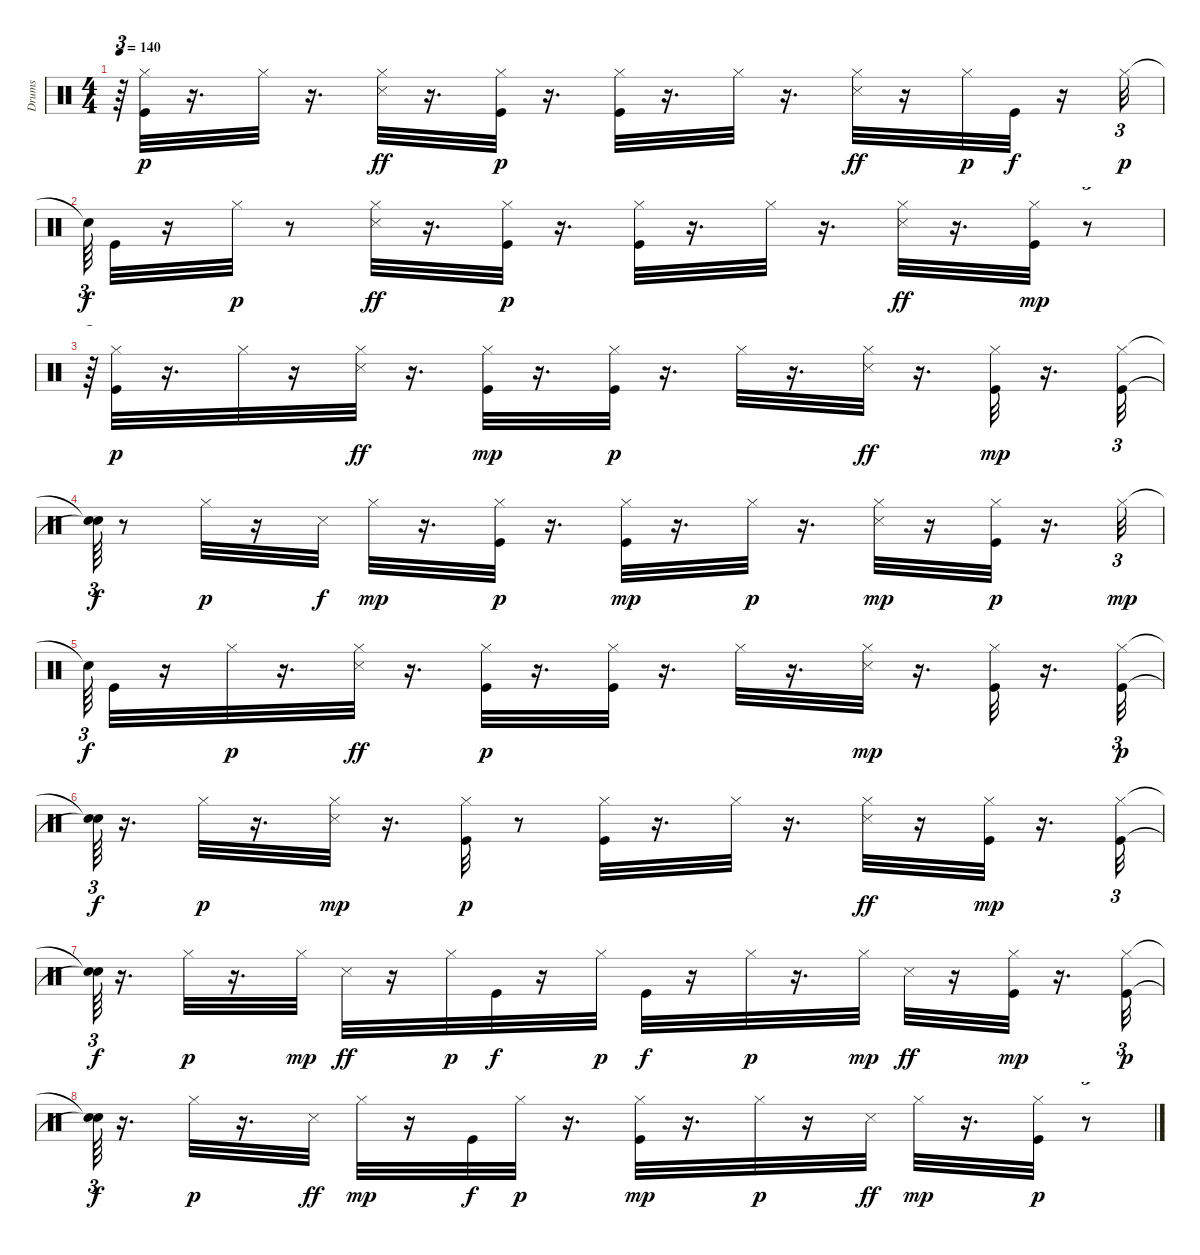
\track ("Drums" "Drums") {instrument percussion}
\staff {score}
\articulation defaults
\ts (4 4)
\tempo 140
\clef neutral
\ks c
r.64{tu (3 2) dy p} ("Hi-Hat (closed)" "Kick (hit)").32 r.16{d} "Hi-Hat (closed)".32 r.16{d} ("Hi-Hat (closed)" "Snare (side stick) 3").32{dy ff} r.16{d} ("Kick (hit)" "Hi-Hat (closed)").32{dy p} r.16{d} ("Kick (hit)" "Hi-Hat (closed)").32 r.16{d} "Hi-Hat (closed)".32 r.16{d} ("Hi-Hat (closed)" "Snare (side stick) 3").32{dy ff} r.16 "Hi-Hat (closed)".32{dy p} "Kick (hit)".32{dy f} r.16 "Hi-Hat (closed)".32{tu (3 2) dy p} |
"Snare (hit)"{t}.64{tu (3 2) dy f} "Kick (hit)".32 r.16 "Hi-Hat (closed)".32{dy p} r.8 ("Hi-Hat (closed)" "Snare (side stick) 3").32{dy ff} r.16{d} ("Hi-Hat (closed)" "Kick (hit)").32{dy p} r.16{d} ("Kick (hit)" "Hi-Hat (closed)").32 r.16{d} "Hi-Hat (closed)".32 r.16{d} ("Hi-Hat (closed)" "Snare (side stick) 3").32{dy ff} r.16{d} ("Kick (hit)" "Hi-Hat (closed)").32{dy mp} r.8{tu (3 2)} |
r.64{tu (3 2)} ("Kick (hit)" "Hi-Hat (closed)").32{dy p} r.16{d} "Hi-Hat (closed)".32 r.16 ("Hi-Hat (closed)" "Snare (side stick) 3").32{dy ff} r.16{d} ("Kick (hit)" "Hi-Hat (closed)").32{dy mp} r.16{d} ("Kick (hit)" "Hi-Hat (closed)").32{dy p} r.16{d} "Hi-Hat (closed)".32 r.16{d} ("Hi-Hat (closed)" "Snare (side stick) 3").32{dy ff} r.16{d} ("Hi-Hat (closed)" "Kick (hit)").32{dy mp} r.16{d} ("Kick (hit)" "Hi-Hat (closed)").32{tu (3 2)} |
("Snare (hit)"{t} "Snare (hit)"{t}).64{tu (3 2) dy f} r.8 "Hi-Hat (closed)".32{dy p} r.16 "Snare (side stick) 3".32{dy f} "Hi-Hat (closed)".32{dy mp} r.16{d} ("Kick (hit)" "Hi-Hat (closed)").32{dy p} r.16{d} ("Hi-Hat (closed)" "Kick (hit)").32{dy mp} r.16{d} "Hi-Hat (closed)".32{dy p} r.16{d} ("Snare (side stick) 3" "Hi-Hat (closed)").32{dy mp} r.16 ("Kick (hit)" "Hi-Hat (closed)").32{dy p} r.16{d} "Hi-Hat (closed)".32{tu (3 2) dy mp} |
"Snare (hit)"{t}.64{tu (3 2) dy f} "Kick (hit)".32 r.16 "Hi-Hat (closed)".32{dy p} r.16{d} ("Hi-Hat (closed)" "Snare (side stick) 3").32{dy ff} r.16{d} ("Kick (hit)" "Hi-Hat (closed)").32{dy p} r.16{d} ("Kick (hit)" "Hi-Hat (closed)").32 r.16{d} "Hi-Hat (closed)".32 r.16{d} ("Hi-Hat (closed)" "Snare (side stick) 3").32{dy mp} r.16{d} ("Kick (hit)" "Hi-Hat (closed)").32 r.16{d} ("Hi-Hat (closed)" "Kick (hit)").32{tu (3 2) dy p} |
("Snare (hit)"{t} "Snare (hit)"{t}).64{tu (3 2) dy f} r.16{d} "Hi-Hat (closed)".32{dy p} r.16{d} ("Snare (side stick) 3" "Hi-Hat (closed)").32{dy mp} r.16{d} ("Kick (hit)" "Hi-Hat (closed)").32{dy p} r.8 ("Hi-Hat (closed)" "Kick (hit)").32 r.16{d} "Hi-Hat (closed)".32 r.16{d} ("Hi-Hat (closed)" "Snare (side stick) 3").32{dy ff} r.16 ("Kick (hit)" "Hi-Hat (closed)").32{dy mp} r.16{d} ("Hi-Hat (closed)" "Kick (hit)").32{tu (3 2)} |
("Snare (hit)"{t} "Snare (hit)"{t}).64{tu (3 2) dy f} r.16{d} "Hi-Hat (closed)".32{dy p} r.16{d} "Hi-Hat (closed)".32{dy mp} "Snare (side stick) 3".32{dy ff} r.16 "Hi-Hat (closed)".32{dy p} "Kick (hit)".32{dy f} r.16 "Hi-Hat (closed)".32{dy p} "Kick (hit)".32{dy f} r.16 "Hi-Hat (closed)".32{dy p} r.16{d} "Hi-Hat (closed)".32{dy mp} "Snare (side stick) 3".32{dy ff} r.16 ("Hi-Hat (closed)" "Kick (hit)").32{dy mp} r.16{d} ("Hi-Hat (closed)" "Kick (hit)").32{tu (3 2) dy p} |
("Snare (hit)"{t} "Snare (hit)"{t}).64{tu (3 2) dy f} r.16{d} "Hi-Hat (closed)".32{dy p} r.16{d} "Snare (side stick) 3".32{dy ff} "Hi-Hat (closed)".32{dy mp} r.16 "Kick (hit)".32{dy f} "Hi-Hat (closed)".32{dy p} r.16{d} ("Kick (hit)" "Hi-Hat (closed)").32{dy mp} r.16{d} "Hi-Hat (closed)".32{dy p} r.16 "Snare (side stick) 3".32{dy ff} "Hi-Hat (closed)".32{dy mp} r.16{d} ("Hi-Hat (closed)" "Kick (hit)").32{dy p} r.8{tu (3 2)}
